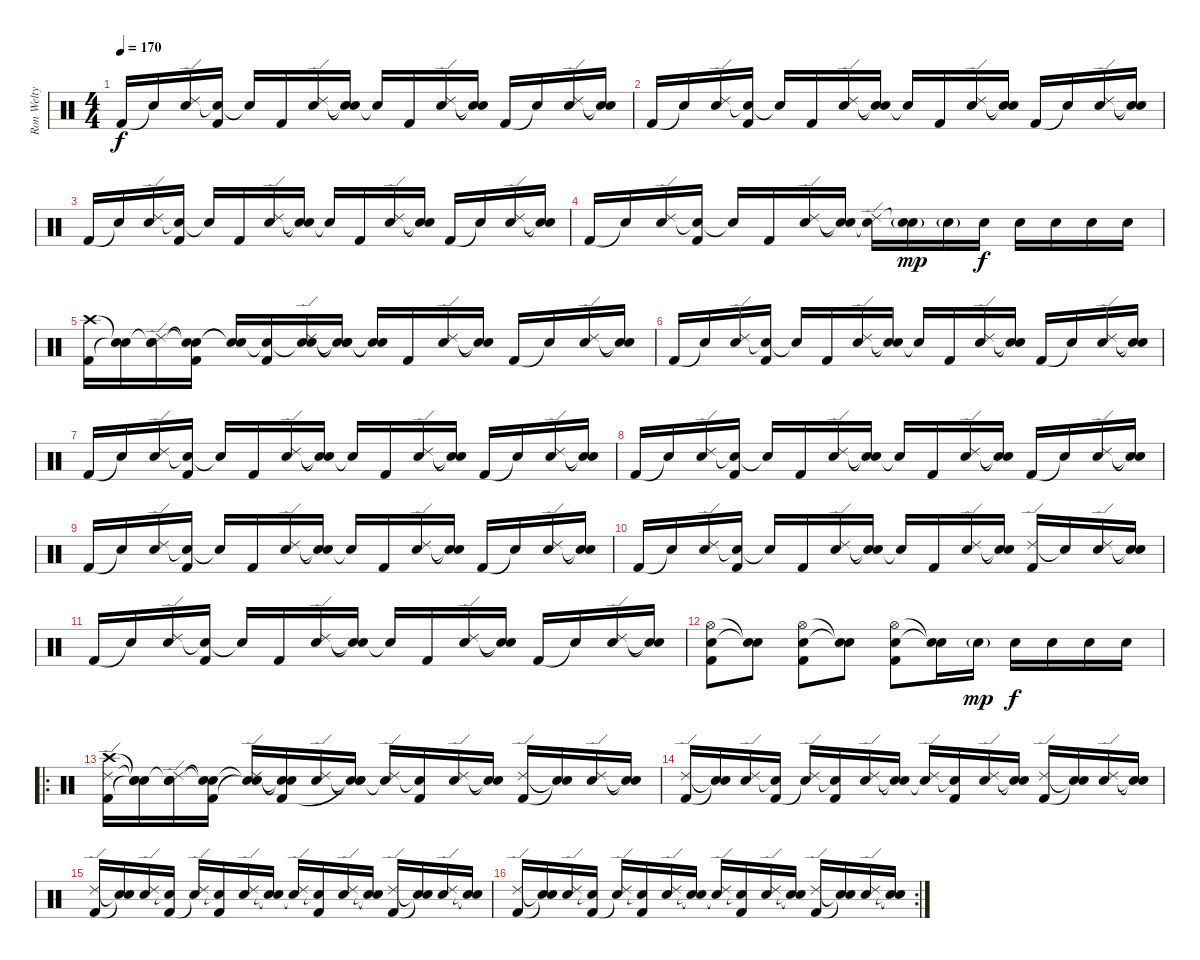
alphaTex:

\track ("Ron Welty" "Ron Welty") {instrument percussion}
\staff {score}
\articulation defaults
\ts (4 4)
\tempo 170
\clef neutral
\ks c "Kick (hit) 2".16{dy f} "Snare (hit)"{t}.16
("Ride (edge) 2" "Electric Snare (hit)").16 ("Snare (hit)"{t} "Kick (hit) 2").16 "Snare (hit)"{t}.16 "Kick (hit) 2".16 ("Ride (edge) 2" "Electric Snare (hit)").16 ("Snare (hit)"{t} "Snare (hit)"{t}).16 "Snare (hit)"{t}.16 "Kick (hit) 2".16 ("Ride (edge) 2" "Electric Snare (hit)").16 ("Snare (hit)"{t} "Snare (hit)"{t}).16 "Kick (hit) 2".16 "Snare (hit)"{t}.16 ("Ride (edge) 2" "Electric Snare (hit)").16 ("Snare (hit)"{t} "Snare (hit)"{t}).16 |
"Kick (hit) 2".16 "Snare (hit)"{t}.16 ("Ride (edge) 2" "Electric Snare (hit)").16 ("Snare (hit)"{t} "Kick (hit) 2").16 "Snare (hit)"{t}.16 "Kick (hit) 2".16 ("Ride (edge) 2" "Electric Snare (hit)").16 ("Snare (hit)"{t} "Snare (hit)"{t}).16 "Snare (hit)"{t}.16 "Kick (hit) 2".16 ("Ride (edge) 2" "Electric Snare (hit)").16 ("Snare (hit)"{t} "Snare (hit)"{t}).16 "Kick (hit) 2".16 "Snare (hit)"{t}.16 ("Ride (edge) 2" "Electric Snare (hit)").16 ("Snare (hit)"{t} "Snare (hit)"{t}).16 |
"Kick (hit) 2".16 "Snare (hit)"{t}.16 ("Ride (edge) 2" "Electric Snare (hit)").16 ("Snare (hit)"{t} "Kick (hit) 2").16 "Snare (hit)"{t}.16 "Kick (hit) 2".16 ("Ride (edge) 2" "Electric Snare (hit)").16 ("Snare (hit)"{t} "Snare (hit)"{t}).16 "Snare (hit)"{t}.16 "Kick (hit) 2".16 ("Ride (edge) 2" "Electric Snare (hit)").16 ("Snare (hit)"{t} "Snare (hit)"{t}).16 "Kick (hit) 2".16 "Snare (hit)"{t}.16 ("Ride (edge) 2" "Electric Snare (hit)").16 ("Snare (hit)"{t} "Snare (hit)"{t}).16 |
"Kick (hit) 2".16 "Snare (hit)"{t}.16 ("Ride (edge) 2" "Electric Snare (hit)").16 ("Snare (hit)"{t} "Kick (hit) 2").16 "Snare (hit)"{t}.16 "Kick (hit) 2".16 ("Ride (edge) 2" "Electric Snare (hit)").16 ("Snare (hit)"{t} "Snare (hit)"{t}).16 ("Ride (edge) 2" "Snare (hit)"{t}).16 ("Snare (hit)"{t} "Electric Snare (hit)"{g}).16{dy mp} "Electric Snare (hit)"{g}.16 "Electric Snare (hit)".16{dy f} "Electric Snare (hit)".16 "Electric Snare (hit)".16 "Electric Snare (hit)".16 "Electric Snare (hit)".16 |
("Crash high (hit)" "Kick (hit) 2").16 ("Snare (hit)"{t} "Snare (hit)"{t}).16 ("Snare (hit)"{t} "Ride (edge) 2" "Electric Snare (hit)").16 ("Snare (hit)"{t} "Snare (hit)"{t} "Kick (hit) 2").16 ("Snare (hit)"{t} "Snare (hit)"{t}).16 ("Snare (hit)"{t} "Kick (hit) 2").16 ("Snare (hit)"{t} "Ride (edge) 2" "Electric Snare (hit)").16 ("Snare (hit)"{t} "Snare (hit)"{t} "Snare (hit)"{t}).16 ("Snare (hit)"{t} "Snare (hit)"{t}).16 "Kick (hit) 2".16 ("Ride (edge) 2" "Electric Snare (hit)").16 ("Snare (hit)"{t} "Snare (hit)"{t}).16 "Kick (hit) 2".16 "Snare (hit)"{t}.16 ("Ride (edge) 2" "Electric Snare (hit)").16 ("Snare (hit)"{t} "Snare (hit)"{t}).16 |
"Kick (hit) 2".16 "Snare (hit)"{t}.16 ("Ride (edge) 2" "Electric Snare (hit)").16 ("Snare (hit)"{t} "Kick (hit) 2").16 "Snare (hit)"{t}.16 "Kick (hit) 2".16 ("Ride (edge) 2" "Electric Snare (hit)").16 ("Snare (hit)"{t} "Snare (hit)"{t}).16 "Snare (hit)"{t}.16 "Kick (hit) 2".16 ("Ride (edge) 2" "Electric Snare (hit)").16 ("Snare (hit)"{t} "Snare (hit)"{t}).16 "Kick (hit) 2".16 "Snare (hit)"{t}.16 ("Ride (edge) 2" "Electric Snare (hit)").16 ("Snare (hit)"{t} "Snare (hit)"{t}).16 |
"Kick (hit) 2".16 "Snare (hit)"{t}.16 ("Ride (edge) 2" "Electric Snare (hit)").16 ("Snare (hit)"{t} "Kick (hit) 2").16 "Snare (hit)"{t}.16 "Kick (hit) 2".16 ("Ride (edge) 2" "Electric Snare (hit)").16 ("Snare (hit)"{t} "Snare (hit)"{t}).16 "Snare (hit)"{t}.16 "Kick (hit) 2".16 ("Ride (edge) 2" "Electric Snare (hit)").16 ("Snare (hit)"{t} "Snare (hit)"{t}).16 "Kick (hit) 2".16 "Snare (hit)"{t}.16 ("Ride (edge) 2" "Electric Snare (hit)").16 ("Snare (hit)"{t} "Snare (hit)"{t}).16 |
"Kick (hit) 2".16 "Snare (hit)"{t}.16 ("Ride (edge) 2" "Electric Snare (hit)").16 ("Snare (hit)"{t} "Kick (hit) 2").16 "Snare (hit)"{t}.16 "Kick (hit) 2".16 ("Ride (edge) 2" "Electric Snare (hit)").16 ("Snare (hit)"{t} "Snare (hit)"{t}).16 "Snare (hit)"{t}.16 "Kick (hit) 2".16 ("Ride (edge) 2" "Electric Snare (hit)").16 ("Snare (hit)"{t} "Snare (hit)"{t}).16 "Kick (hit) 2".16 "Snare (hit)"{t}.16 ("Ride (edge) 2" "Electric Snare (hit)").16 ("Snare (hit)"{t} "Snare (hit)"{t}).16 |
"Kick (hit) 2".16 "Snare (hit)"{t}.16 ("Ride (edge) 2" "Electric Snare (hit)").16 ("Snare (hit)"{t} "Kick (hit) 2").16 "Snare (hit)"{t}.16 "Kick (hit) 2".16 ("Ride (edge) 2" "Electric Snare (hit)").16 ("Snare (hit)"{t} "Snare (hit)"{t}).16 "Snare (hit)"{t}.16 "Kick (hit) 2".16 ("Ride (edge) 2" "Electric Snare (hit)").16 ("Snare (hit)"{t} "Snare (hit)"{t}).16 "Kick (hit) 2".16 "Snare (hit)"{t}.16 ("Ride (edge) 2" "Electric Snare (hit)").16 ("Snare (hit)"{t} "Snare (hit)"{t}).16 |
"Kick (hit) 2".16 "Snare (hit)"{t}.16 ("Ride (edge) 2" "Electric Snare (hit)").16 ("Snare (hit)"{t} "Kick (hit) 2").16 "Snare (hit)"{t}.16 "Kick (hit) 2".16 ("Ride (edge) 2" "Electric Snare (hit)").16 ("Snare (hit)"{t} "Snare (hit)"{t}).16 "Snare (hit)"{t}.16 "Kick (hit) 2".16 ("Ride (edge) 2" "Electric Snare (hit)").16 ("Snare (hit)"{t} "Snare (hit)"{t}).16 ("Ride (edge) 2" "Kick (hit) 2").16 "Snare (hit)"{t}.16 ("Ride (edge) 2" "Electric Snare (hit)").16 ("Snare (hit)"{t} "Snare (hit)"{t}).16 |
"Kick (hit) 2".16 "Snare (hit)"{t}.16 ("Ride (edge) 2" "Electric Snare (hit)").16 ("Snare (hit)"{t} "Kick (hit) 2").16 "Snare (hit)"{t}.16 "Kick (hit) 2".16 ("Ride (edge) 2" "Electric Snare (hit)").16 ("Snare (hit)"{t} "Snare (hit)"{t}).16 "Snare (hit)"{t}.16 "Kick (hit) 2".16 ("Ride (edge) 2" "Electric Snare (hit)").16 ("Snare (hit)"{t} "Snare (hit)"{t}).16 "Kick (hit) 2".16 "Snare (hit)"{t}.16 ("Ride (edge) 2" "Electric Snare (hit)").16 ("Snare (hit)"{t} "Snare (hit)"{t}).16 |
("Hi-Hat (open)" "Electric Snare (hit)" "Kick (hit) 2").8 ("Snare (hit)"{t} "Snare (hit)"{t}).8 ("Hi-Hat (open)" "Electric Snare (hit)" "Kick (hit) 2").8 ("Snare (hit)"{t} "Snare (hit)"{t}).8 ("Hi-Hat (open)" "Electric Snare (hit)" "Kick (hit) 2").8 ("Snare (hit)"{t} "Snare (hit)"{t}).16 "Electric Snare (hit)"{g}.16{dy mp} "Electric Snare (hit)".16{dy f} "Electric Snare (hit)".16 "Electric Snare (hit)".16 "Electric Snare (hit)".16 |
\ro
("Crash high (hit)" "Ride (edge) 2" "Kick (hit) 2").16 ("Snare (hit)"{t} "Snare (hit)"{t} "Snare (hit)"{t}).16 ("Snare (hit)"{t} "Ride (edge) 2" "Electric Snare (hit)").16 ("Snare (hit)"{t} "Snare (hit)"{t} "Kick (hit) 2").16 ("Snare (hit)"{t} "Ride (edge) 2" "Snare (hit)"{t}).16 ("Snare (hit)"{t} "Snare (hit)"{t} "Kick (hit) 2").16 ("Ride (edge) 2" "Electric Snare (hit)").16 ("Snare (hit)"{t} "Snare (hit)"{t} "Snare (hit)"{t}).16 ("Ride (edge) 2" "Snare (hit)"{t}).16 ("Snare (hit)"{t} "Kick (hit) 2").16 ("Ride (edge) 2" "Electric Snare (hit)").16 ("Snare (hit)"{t} "Snare (hit)"{t}).16 ("Ride (edge) 2" "Kick (hit) 2").16 ("Snare (hit)"{t} "Snare (hit)"{t}).16 ("Ride (edge) 2" "Electric Snare (hit)").16 ("Snare (hit)"{t} "Snare (hit)"{t}).16 |
("Ride (edge) 2" "Kick (hit) 2").16 ("Snare (hit)"{t} "Snare (hit)"{t}).16 ("Ride (edge) 2" "Electric Snare (hit)").16 ("Snare (hit)"{t} "Kick (hit) 2").16 ("Ride (edge) 2" "Snare (hit)"{t}).16 ("Snare (hit)"{t} "Kick (hit) 2").16 ("Ride (edge) 2" "Electric Snare (hit)").16 ("Snare (hit)"{t} "Snare (hit)"{t}).16 ("Ride (edge) 2" "Snare (hit)"{t}).16 ("Snare (hit)"{t} "Kick (hit) 2").16 ("Ride (edge) 2" "Electric Snare (hit)").16 ("Snare (hit)"{t} "Snare (hit)"{t}).16 ("Ride (edge) 2" "Kick (hit) 2").16 ("Snare (hit)"{t} "Snare (hit)"{t}).16 ("Ride (edge) 2" "Electric Snare (hit)").16 ("Snare (hit)"{t} "Snare (hit)"{t}).16 |
("Ride (edge) 2" "Kick (hit) 2").16 ("Snare (hit)"{t} "Snare (hit)"{t}).16 ("Ride (edge) 2" "Electric Snare (hit)").16 ("Snare (hit)"{t} "Kick (hit) 2").16 ("Ride (edge) 2" "Snare (hit)"{t}).16 ("Snare (hit)"{t} "Kick (hit) 2").16 ("Ride (edge) 2" "Electric Snare (hit)").16 ("Snare (hit)"{t} "Snare (hit)"{t}).16 ("Ride (edge) 2" "Snare (hit)"{t}).16 ("Snare (hit)"{t} "Kick (hit) 2").16 ("Ride (edge) 2" "Electric Snare (hit)").16 ("Snare (hit)"{t} "Snare (hit)"{t}).16 ("Ride (edge) 2" "Kick (hit) 2").16 ("Snare (hit)"{t} "Snare (hit)"{t}).16 ("Ride (edge) 2" "Electric Snare (hit)").16 ("Snare (hit)"{t} "Snare (hit)"{t}).16 |
\rc 2
("Ride (edge) 2" "Kick (hit) 2").16 ("Snare (hit)"{t} "Snare (hit)"{t}).16 ("Ride (edge) 2" "Electric Snare (hit)").16 ("Snare (hit)"{t} "Kick (hit) 2").16 ("Ride (edge) 2" "Snare (hit)"{t}).16 ("Snare (hit)"{t} "Kick (hit) 2").16 ("Ride (edge) 2" "Electric Snare (hit)").16 ("Snare (hit)"{t} "Snare (hit)"{t}).16 ("Ride (edge) 2" "Snare (hit)"{t}).16 ("Snare (hit)"{t} "Kick (hit) 2").16 ("Ride (edge) 2" "Electric Snare (hit)").16 ("Snare (hit)"{t} "Snare (hit)"{t}).16 ("Ride (edge) 2" "Kick (hit) 2").16 ("Snare (hit)"{t} "Snare (hit)"{t}).16 ("Ride (edge) 2" "Electric Snare (hit)").16 ("Snare (hit)"{t} "Snare (hit)"{t}).16
